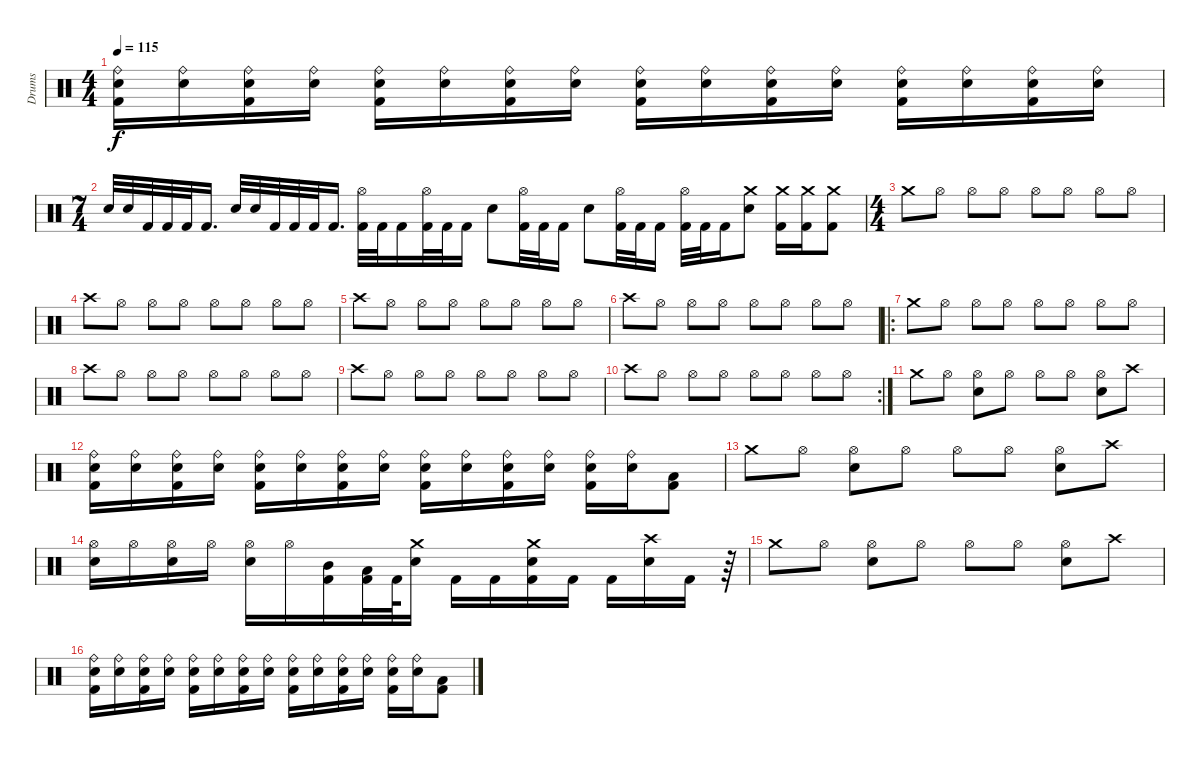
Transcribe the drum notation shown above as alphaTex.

\track ("Drums" "Drums") {instrument percussion}
\staff {score}
\articulation defaults
\ts (4 4)
\tempo 115
\clef neutral
\ks c
("Kick (hit) 2" "Ride (bell)" "Snare (hit) 2").16{dy f} ("Ride (bell)" "Snare (hit) 2").16 ("Kick (hit) 2" "Ride (bell)" "Snare (hit) 2").16 ("Ride (bell)" "Snare (hit) 2").16 ("Kick (hit) 2" "Ride (bell)" "Snare (hit) 2").16 ("Ride (bell)" "Snare (hit) 2").16 ("Kick (hit) 2" "Ride (bell)" "Snare (hit) 2").16 ("Ride (bell)" "Snare (hit) 2").16 ("Kick (hit) 2" "Ride (bell)" "Snare (hit) 2").16 ("Ride (bell)" "Snare (hit) 2").16 ("Kick (hit) 2" "Ride (bell)" "Snare (hit) 2").16 ("Ride (bell)" "Snare (hit) 2").16 ("Kick (hit) 2" "Ride (bell)" "Snare (hit) 2").16 ("Ride (bell)" "Snare (hit) 2").16 ("Kick (hit) 2" "Ride (bell)" "Snare (hit) 2").16 ("Ride (bell)" "Snare (hit) 2").16 |
\ts (7 4)
"Snare (hit) 2".32 "Snare (hit) 2".32 "Kick (hit) 2".32 "Kick (hit) 2".32 "Kick (hit) 2".32 "Kick (hit) 2".16{d} "Snare (hit) 2".32 "Snare (hit) 2".32 "Kick (hit) 2".32 "Kick (hit) 2".32 "Kick (hit) 2".32 "Kick (hit) 2".16{d} ("Kick (hit) 2" "Hi-Hat (open)").32 "Kick (hit) 2".32 "Kick (hit) 2".16 ("Kick (hit) 2" "Hi-Hat (open)").32 "Kick (hit) 2".32 "Kick (hit) 2".16 "Snare (hit) 2".8 ("Kick (hit) 2" "Hi-Hat (open)").32 "Kick (hit) 2".32 "Kick (hit) 2".16 "Snare (hit) 2".8 ("Kick (hit) 2" "Hi-Hat (open)").32 "Kick (hit) 2".32 "Kick (hit) 2".16 ("Kick (hit) 2" "Hi-Hat (open)").32 "Kick (hit) 2".32 "Kick (hit) 2".16 ("Crash medium (hit)" "Snare (hit) 2").8 ("Kick (hit) 2" "Crash medium (hit)").16 ("Kick (hit) 2" "Crash medium (hit)").16 ("Kick (hit) 2" "Crash medium (hit)").8 |
\ts (4 4)
"Crash medium (hit)".8 "Hi-Hat (open)".8 "Hi-Hat (open)".8 "Hi-Hat (open)".8 "Hi-Hat (open)".8 "Hi-Hat (open)".8 "Hi-Hat (open)".8 "Hi-Hat (open)".8 |
"Crash high (hit)".8 "Hi-Hat (open)".8 "Hi-Hat (open)".8 "Hi-Hat (open)".8 "Hi-Hat (open)".8 "Hi-Hat (open)".8 "Hi-Hat (open)".8 "Hi-Hat (open)".8 |
"Crash high (hit)".8 "Hi-Hat (open)".8 "Hi-Hat (open)".8 "Hi-Hat (open)".8 "Hi-Hat (open)".8 "Hi-Hat (open)".8 "Hi-Hat (open)".8 "Hi-Hat (open)".8 |
"Crash high (hit)".8 "Hi-Hat (open)".8 "Hi-Hat (open)".8 "Hi-Hat (open)".8 "Hi-Hat (open)".8 "Hi-Hat (open)".8 "Hi-Hat (open)".8 "Hi-Hat (open)".8 |
\ro "Crash medium (hit)".8 "Hi-Hat (open)".8 "Hi-Hat (open)".8 "Hi-Hat (open)".8 "Hi-Hat (open)".8 "Hi-Hat (open)".8 "Hi-Hat (open)".8 "Hi-Hat (open)".8
|
"Crash high (hit)".8 "Hi-Hat (open)".8 "Hi-Hat (open)".8 "Hi-Hat (open)".8 "Hi-Hat (open)".8 "Hi-Hat (open)".8 "Hi-Hat (open)".8 "Hi-Hat (open)".8 |
"Crash high (hit)".8 "Hi-Hat (open)".8 "Hi-Hat (open)".8 "Hi-Hat (open)".8 "Hi-Hat (open)".8 "Hi-Hat (open)".8 "Hi-Hat (open)".8 "Hi-Hat (open)".8 |
\rc 2 "Crash high (hit)".8 "Hi-Hat (open)".8 "Hi-Hat (open)".8 "Hi-Hat (open)".8 "Hi-Hat (open)".8 "Hi-Hat (open)".8 "Hi-Hat (open)".8 "Hi-Hat (open)".8
|
"Crash medium (hit)".8 "Hi-Hat (open)".8 ("Hi-Hat (open)" "Snare (hit) 2").8 "Hi-Hat (open)".8 "Hi-Hat (open)".8 "Hi-Hat (open)".8 ("Hi-Hat (open)" "Snare (hit) 2").8 "Crash high (hit)".8 |
("Kick (hit) 2" "Ride (bell)" "Snare (hit) 2").16 ("Ride (bell)" "Snare (hit) 2").16 ("Kick (hit) 2" "Ride (bell)" "Snare (hit) 2").16 ("Ride (bell)" "Snare (hit) 2").16 ("Kick (hit) 2" "Ride (bell)" "Snare (hit) 2").16 ("Ride (bell)" "Snare (hit) 2").16 ("Kick (hit) 2" "Ride (bell)" "Snare (hit) 2").16 ("Ride (bell)" "Snare (hit) 2").16 ("Kick (hit) 2" "Ride (bell)" "Snare (hit) 2").16 ("Ride (bell)" "Snare (hit) 2").16 ("Kick (hit) 2" "Ride (bell)" "Snare (hit) 2").16 ("Ride (bell)" "Snare (hit) 2").16 ("Kick (hit) 2" "Ride (bell)" "Snare (hit) 2").16 ("Ride (bell)" "Snare (hit) 2").16 ("Kick (hit) 2" "Low Tom (hit)").8 |
"Crash medium (hit)".8 "Hi-Hat (open)".8 ("Hi-Hat (open)" "Snare (hit) 2").8 "Hi-Hat (open)".8 "Hi-Hat (open)".8 "Hi-Hat (open)".8 ("Hi-Hat (open)" "Snare (hit) 2").8 "Crash high (hit)".8 |
("Hi-Hat (open)" "Snare (hit) 2").16 "Hi-Hat (open)".16 ("Hi-Hat (open)" "Snare (hit) 2").16 "Hi-Hat (open)".16 ("Hi-Hat (open)" "Snare (hit) 2").16 "Hi-Hat (open)".16 ("Kick (hit) 2" "Mid Tom (hit)").16 ("Kick (hit) 2" "Low Tom (hit)").32 "Kick (hit) 2".64 ("Crash medium (hit)" "Snare (hit) 2").16 "Kick (hit) 2".16 "Kick (hit) 2".16 ("Kick (hit) 2" "Crash medium (hit)" "Snare (hit) 2").16 "Kick (hit) 2".16 "Kick (hit) 2".16 ("Crash high (hit)" "Snare (hit) 2").16 "Kick (hit) 2".16 r.64 |
"Crash medium (hit)".8 "Hi-Hat (open)".8 ("Hi-Hat (open)" "Snare (hit) 2").8 "Hi-Hat (open)".8 "Hi-Hat (open)".8 "Hi-Hat (open)".8 ("Hi-Hat (open)" "Snare (hit) 2").8 "Crash high (hit)".8 |
("Kick (hit) 2" "Ride (bell)" "Snare (hit) 2").16 ("Ride (bell)" "Snare (hit) 2").16 ("Kick (hit) 2" "Ride (bell)" "Snare (hit) 2").16 ("Ride (bell)" "Snare (hit) 2").16 ("Kick (hit) 2" "Ride (bell)" "Snare (hit) 2").16 ("Ride (bell)" "Snare (hit) 2").16 ("Kick (hit) 2" "Ride (bell)" "Snare (hit) 2").16 ("Ride (bell)" "Snare (hit) 2").16 ("Kick (hit) 2" "Ride (bell)" "Snare (hit) 2").16 ("Ride (bell)" "Snare (hit) 2").16 ("Kick (hit) 2" "Ride (bell)" "Snare (hit) 2").16 ("Ride (bell)" "Snare (hit) 2").16 ("Kick (hit) 2" "Ride (bell)" "Snare (hit) 2").16 ("Ride (bell)" "Snare (hit) 2").16 ("Kick (hit) 2" "Low Tom (hit)").8
